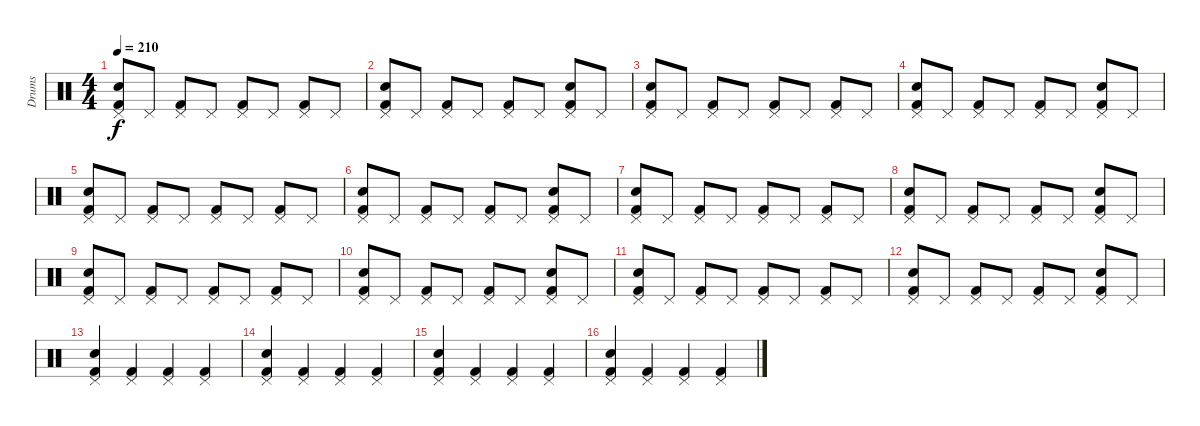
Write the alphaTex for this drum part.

\track ("Drums" "Drums") {instrument percussion}
\staff {score}
\articulation defaults
\ts (4 4)
\tempo 210
\clef neutral
\ks c
("Kick (hit) 2" "Pedal Hi-Hat (hit)" "Snare (hit) 2").8{dy f} "Pedal Hi-Hat (hit)".8 ("Kick (hit) 2" "Pedal Hi-Hat (hit)").8 "Pedal Hi-Hat (hit)".8 ("Kick (hit) 2" "Pedal Hi-Hat (hit)").8 "Pedal Hi-Hat (hit)".8 ("Kick (hit) 2" "Pedal Hi-Hat (hit)").8 "Pedal Hi-Hat (hit)".8 |
("Kick (hit) 2" "Pedal Hi-Hat (hit)" "Snare (hit) 2").8 "Pedal Hi-Hat (hit)".8 ("Kick (hit) 2" "Pedal Hi-Hat (hit)").8 "Pedal Hi-Hat (hit)".8 ("Kick (hit) 2" "Pedal Hi-Hat (hit)").8 "Pedal Hi-Hat (hit)".8 ("Kick (hit) 2" "Pedal Hi-Hat (hit)" "Snare (hit) 2").8 "Pedal Hi-Hat (hit)".8 |
("Kick (hit) 2" "Pedal Hi-Hat (hit)" "Snare (hit) 2").8 "Pedal Hi-Hat (hit)".8 ("Kick (hit) 2" "Pedal Hi-Hat (hit)").8 "Pedal Hi-Hat (hit)".8 ("Kick (hit) 2" "Pedal Hi-Hat (hit)").8 "Pedal Hi-Hat (hit)".8 ("Kick (hit) 2" "Pedal Hi-Hat (hit)").8 "Pedal Hi-Hat (hit)".8 |
("Kick (hit) 2" "Pedal Hi-Hat (hit)" "Snare (hit) 2").8 "Pedal Hi-Hat (hit)".8 ("Kick (hit) 2" "Pedal Hi-Hat (hit)").8 "Pedal Hi-Hat (hit)".8 ("Kick (hit) 2" "Pedal Hi-Hat (hit)").8 "Pedal Hi-Hat (hit)".8 ("Kick (hit) 2" "Pedal Hi-Hat (hit)" "Snare (hit) 2").8 "Pedal Hi-Hat (hit)".8 |
("Kick (hit) 2" "Pedal Hi-Hat (hit)" "Snare (hit) 2").8 "Pedal Hi-Hat (hit)".8 ("Kick (hit) 2" "Pedal Hi-Hat (hit)").8 "Pedal Hi-Hat (hit)".8 ("Kick (hit) 2" "Pedal Hi-Hat (hit)").8 "Pedal Hi-Hat (hit)".8 ("Kick (hit) 2" "Pedal Hi-Hat (hit)").8 "Pedal Hi-Hat (hit)".8 |
("Kick (hit) 2" "Pedal Hi-Hat (hit)" "Snare (hit) 2").8 "Pedal Hi-Hat (hit)".8 ("Kick (hit) 2" "Pedal Hi-Hat (hit)").8 "Pedal Hi-Hat (hit)".8 ("Kick (hit) 2" "Pedal Hi-Hat (hit)").8 "Pedal Hi-Hat (hit)".8 ("Kick (hit) 2" "Pedal Hi-Hat (hit)" "Snare (hit) 2").8 "Pedal Hi-Hat (hit)".8 |
("Kick (hit) 2" "Pedal Hi-Hat (hit)" "Snare (hit) 2").8 "Pedal Hi-Hat (hit)".8 ("Kick (hit) 2" "Pedal Hi-Hat (hit)").8 "Pedal Hi-Hat (hit)".8 ("Kick (hit) 2" "Pedal Hi-Hat (hit)").8 "Pedal Hi-Hat (hit)".8 ("Kick (hit) 2" "Pedal Hi-Hat (hit)").8 "Pedal Hi-Hat (hit)".8 |
("Kick (hit) 2" "Pedal Hi-Hat (hit)" "Snare (hit) 2").8 "Pedal Hi-Hat (hit)".8 ("Kick (hit) 2" "Pedal Hi-Hat (hit)").8 "Pedal Hi-Hat (hit)".8 ("Kick (hit) 2" "Pedal Hi-Hat (hit)").8 "Pedal Hi-Hat (hit)".8 ("Kick (hit) 2" "Pedal Hi-Hat (hit)" "Snare (hit) 2").8 "Pedal Hi-Hat (hit)".8 |
("Kick (hit) 2" "Pedal Hi-Hat (hit)" "Snare (hit) 2").8 "Pedal Hi-Hat (hit)".8 ("Kick (hit) 2" "Pedal Hi-Hat (hit)").8 "Pedal Hi-Hat (hit)".8 ("Kick (hit) 2" "Pedal Hi-Hat (hit)").8 "Pedal Hi-Hat (hit)".8 ("Kick (hit) 2" "Pedal Hi-Hat (hit)").8 "Pedal Hi-Hat (hit)".8 |
("Kick (hit) 2" "Pedal Hi-Hat (hit)" "Snare (hit) 2").8 "Pedal Hi-Hat (hit)".8 ("Kick (hit) 2" "Pedal Hi-Hat (hit)").8 "Pedal Hi-Hat (hit)".8 ("Kick (hit) 2" "Pedal Hi-Hat (hit)").8 "Pedal Hi-Hat (hit)".8 ("Kick (hit) 2" "Pedal Hi-Hat (hit)" "Snare (hit) 2").8 "Pedal Hi-Hat (hit)".8 |
("Kick (hit) 2" "Pedal Hi-Hat (hit)" "Snare (hit) 2").8 "Pedal Hi-Hat (hit)".8 ("Kick (hit) 2" "Pedal Hi-Hat (hit)").8 "Pedal Hi-Hat (hit)".8 ("Kick (hit) 2" "Pedal Hi-Hat (hit)").8 "Pedal Hi-Hat (hit)".8 ("Kick (hit) 2" "Pedal Hi-Hat (hit)").8 "Pedal Hi-Hat (hit)".8 |
("Kick (hit) 2" "Pedal Hi-Hat (hit)" "Snare (hit) 2").8 "Pedal Hi-Hat (hit)".8 ("Kick (hit) 2" "Pedal Hi-Hat (hit)").8 "Pedal Hi-Hat (hit)".8 ("Kick (hit) 2" "Pedal Hi-Hat (hit)").8 "Pedal Hi-Hat (hit)".8 ("Kick (hit) 2" "Pedal Hi-Hat (hit)" "Snare (hit) 2").8 "Pedal Hi-Hat (hit)".8 |
("Kick (hit) 2" "Pedal Hi-Hat (hit)" "Snare (hit) 2").4 ("Kick (hit) 2" "Pedal Hi-Hat (hit)").4 ("Kick (hit) 2" "Pedal Hi-Hat (hit)").4 ("Kick (hit) 2" "Pedal Hi-Hat (hit)").4 |
("Kick (hit) 2" "Pedal Hi-Hat (hit)" "Snare (hit) 2").4 ("Kick (hit) 2" "Pedal Hi-Hat (hit)").4 ("Kick (hit) 2" "Pedal Hi-Hat (hit)").4 ("Kick (hit) 2" "Pedal Hi-Hat (hit)").4 |
("Kick (hit) 2" "Pedal Hi-Hat (hit)" "Snare (hit) 2").4 ("Kick (hit) 2" "Pedal Hi-Hat (hit)").4 ("Kick (hit) 2" "Pedal Hi-Hat (hit)").4 ("Kick (hit) 2" "Pedal Hi-Hat (hit)").4 |
("Kick (hit) 2" "Pedal Hi-Hat (hit)" "Snare (hit) 2").4 ("Kick (hit) 2" "Pedal Hi-Hat (hit)").4 ("Kick (hit) 2" "Pedal Hi-Hat (hit)").4 ("Kick (hit) 2" "Pedal Hi-Hat (hit)").4
